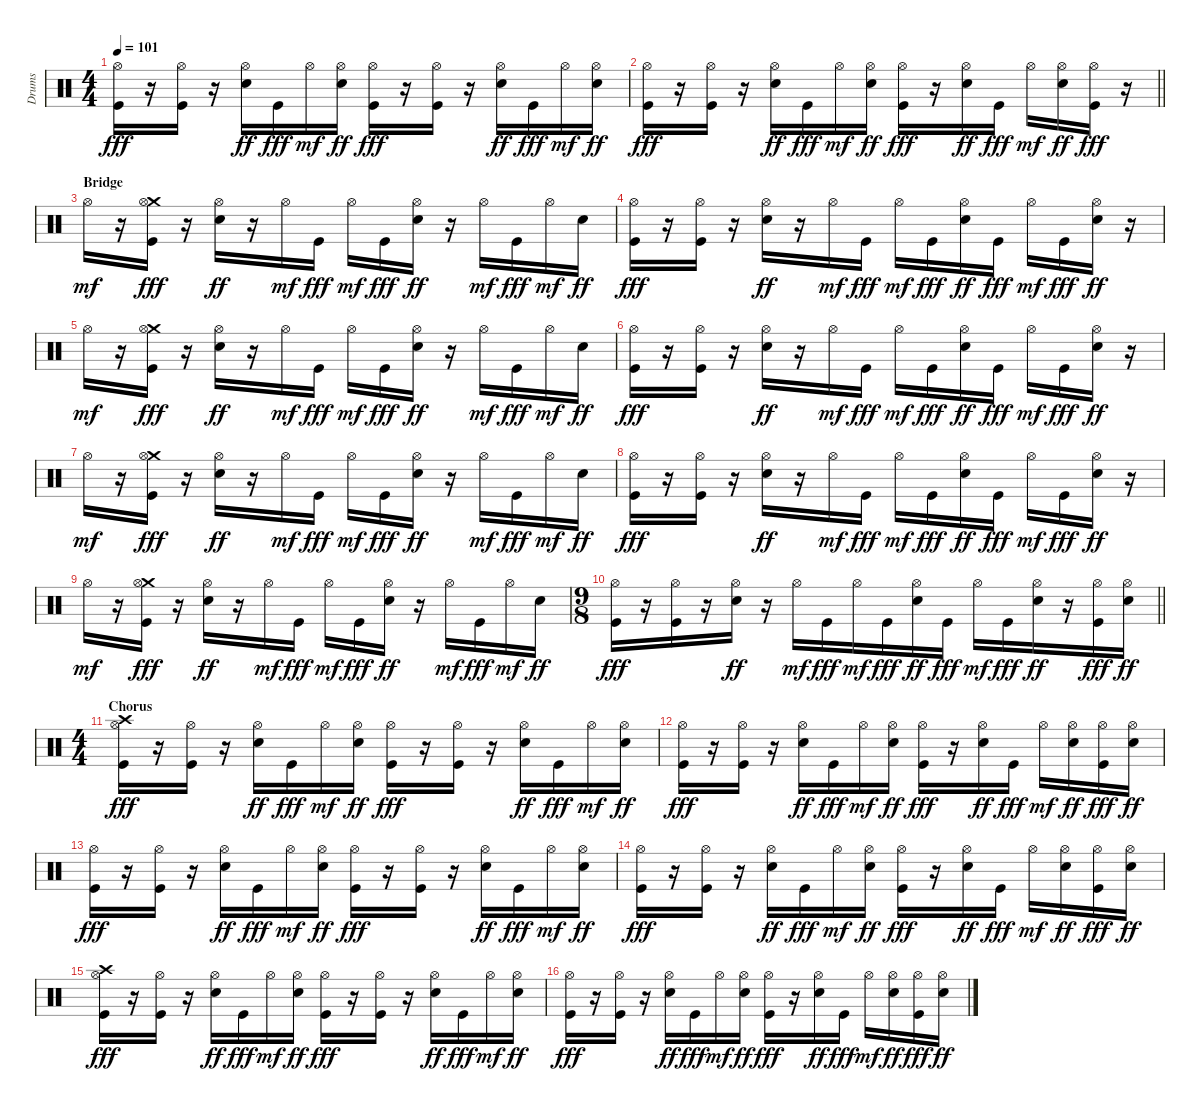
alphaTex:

\track ("Drums" "Drums") {instrument percussion}
\staff {score}
\articulation defaults
\ts (4 4)
\tempo 101
\clef neutral
\ks c
("Hi-Hat (open)" "Kick (hit)").16{dy fff} r.16 ("Hi-Hat (open)" "Kick (hit)").16 r.16 ("Hi-Hat (open)" "Electric Snare (hit)").16{dy ff} "Kick (hit)".16{dy fff} "Hi-Hat (open)".16{dy mf} ("Hi-Hat (open)" "Electric Snare (hit)").16{dy ff} ("Hi-Hat (open)" "Kick (hit)").16{dy fff} r.16 ("Hi-Hat (open)" "Kick (hit)").16 r.16 ("Hi-Hat (open)" "Electric Snare (hit)").16{dy ff} "Kick (hit)".16{dy fff} "Hi-Hat (open)".16{dy mf} ("Hi-Hat (open)" "Electric Snare (hit)").16{dy ff} |
\barLineRight lightlight
("Hi-Hat (open)" "Kick (hit)").16{dy fff} r.16 ("Hi-Hat (open)" "Kick (hit)").16 r.16 ("Hi-Hat (open)" "Electric Snare (hit)").16{dy ff} "Kick (hit)".16{dy fff} "Hi-Hat (open)".16{dy mf} ("Hi-Hat (open)" "Electric Snare (hit)").16{dy ff} ("Hi-Hat (open)" "Kick (hit)").16{dy fff} r.16 ("Hi-Hat (open)" "Electric Snare (hit)").16{dy ff} "Kick (hit)".16{dy fff} "Hi-Hat (open)".16{dy mf} ("Hi-Hat (open)" "Electric Snare (hit)").16{dy ff} ("Hi-Hat (open)" "Kick (hit)").16{dy fff} r.16 |
\section ("" "Bridge")
"Hi-Hat (open)".16{dy mf} r.16 ("Crash medium (hit)" "Hi-Hat (open)" "Kick (hit)").16{dy fff} r.16 ("Hi-Hat (open)" "Electric Snare (hit)").16{dy ff} r.16 "Hi-Hat (open)".16{dy mf} "Kick (hit)".16{dy fff} "Hi-Hat (open)".16{dy mf} "Kick (hit)".16{dy fff} ("Hi-Hat (open)" "Electric Snare (hit)").16{dy ff} r.16 "Hi-Hat (open)".16{dy mf} "Kick (hit)".16{dy fff} "Hi-Hat (open)".16{dy mf} "Electric Snare (hit)".16{dy ff} |
("Hi-Hat (open)" "Kick (hit)").16{dy fff} r.16 ("Hi-Hat (open)" "Kick (hit)").16 r.16 ("Hi-Hat (open)" "Electric Snare (hit)").16{dy ff} r.16 "Hi-Hat (open)".16{dy mf} "Kick (hit)".16{dy fff} "Hi-Hat (open)".16{dy mf} "Kick (hit)".16{dy fff} ("Hi-Hat (open)" "Electric Snare (hit)").16{dy ff} "Kick (hit)".16{dy fff} "Hi-Hat (open)".16{dy mf} "Kick (hit)".16{dy fff} ("Hi-Hat (open)" "Electric Snare (hit)").16{dy ff} r.16 |
"Hi-Hat (open)".16{dy mf} r.16 ("Crash medium (hit)" "Hi-Hat (open)" "Kick (hit)").16{dy fff} r.16 ("Hi-Hat (open)" "Electric Snare (hit)").16{dy ff} r.16 "Hi-Hat (open)".16{dy mf} "Kick (hit)".16{dy fff} "Hi-Hat (open)".16{dy mf} "Kick (hit)".16{dy fff} ("Hi-Hat (open)" "Electric Snare (hit)").16{dy ff} r.16 "Hi-Hat (open)".16{dy mf} "Kick (hit)".16{dy fff} "Hi-Hat (open)".16{dy mf} "Electric Snare (hit)".16{dy ff} |
("Hi-Hat (open)" "Kick (hit)").16{dy fff} r.16 ("Hi-Hat (open)" "Kick (hit)").16 r.16 ("Hi-Hat (open)" "Electric Snare (hit)").16{dy ff} r.16 "Hi-Hat (open)".16{dy mf} "Kick (hit)".16{dy fff} "Hi-Hat (open)".16{dy mf} "Kick (hit)".16{dy fff} ("Hi-Hat (open)" "Electric Snare (hit)").16{dy ff} "Kick (hit)".16{dy fff} "Hi-Hat (open)".16{dy mf} "Kick (hit)".16{dy fff} ("Hi-Hat (open)" "Electric Snare (hit)").16{dy ff} r.16 |
"Hi-Hat (open)".16{dy mf} r.16 ("Crash medium (hit)" "Hi-Hat (open)" "Kick (hit)").16{dy fff} r.16 ("Hi-Hat (open)" "Electric Snare (hit)").16{dy ff} r.16 "Hi-Hat (open)".16{dy mf} "Kick (hit)".16{dy fff} "Hi-Hat (open)".16{dy mf} "Kick (hit)".16{dy fff} ("Hi-Hat (open)" "Electric Snare (hit)").16{dy ff} r.16 "Hi-Hat (open)".16{dy mf} "Kick (hit)".16{dy fff} "Hi-Hat (open)".16{dy mf} "Electric Snare (hit)".16{dy ff} |
("Hi-Hat (open)" "Kick (hit)").16{dy fff} r.16 ("Hi-Hat (open)" "Kick (hit)").16 r.16 ("Hi-Hat (open)" "Electric Snare (hit)").16{dy ff} r.16 "Hi-Hat (open)".16{dy mf} "Kick (hit)".16{dy fff} "Hi-Hat (open)".16{dy mf} "Kick (hit)".16{dy fff} ("Hi-Hat (open)" "Electric Snare (hit)").16{dy ff} "Kick (hit)".16{dy fff} "Hi-Hat (open)".16{dy mf} "Kick (hit)".16{dy fff} ("Hi-Hat (open)" "Electric Snare (hit)").16{dy ff} r.16 |
"Hi-Hat (open)".16{dy mf} r.16 ("Crash medium (hit)" "Hi-Hat (open)" "Kick (hit)").16{dy fff} r.16 ("Hi-Hat (open)" "Electric Snare (hit)").16{dy ff} r.16 "Hi-Hat (open)".16{dy mf} "Kick (hit)".16{dy fff} "Hi-Hat (open)".16{dy mf} "Kick (hit)".16{dy fff} ("Hi-Hat (open)" "Electric Snare (hit)").16{dy ff} r.16 "Hi-Hat (open)".16{dy mf} "Kick (hit)".16{dy fff} "Hi-Hat (open)".16{dy mf} "Electric Snare (hit)".16{dy ff} |
\ts (9 8)
\barLineRight lightlight
("Hi-Hat (open)" "Kick (hit)").16{dy fff} r.16 ("Hi-Hat (open)" "Kick (hit)").16 r.16 ("Hi-Hat (open)" "Electric Snare (hit)").16{dy ff} r.16 "Hi-Hat (open)".16{dy mf} "Kick (hit)".16{dy fff} "Hi-Hat (open)".16{dy mf} "Kick (hit)".16{dy fff} ("Hi-Hat (open)" "Electric Snare (hit)").16{dy ff} "Kick (hit)".16{dy fff} "Hi-Hat (open)".16{dy mf} "Kick (hit)".16{dy fff} ("Hi-Hat (open)" "Electric Snare (hit)").16{dy ff} r.16 ("Hi-Hat (open)" "Kick (hit)").16{dy fff} ("Hi-Hat (open)" "Electric Snare (hit)").16{dy ff} |
\ts (4 4)
\section ("" "Chorus")
("Crash high (hit)" "Hi-Hat (open)" "Kick (hit)").16{dy fff} r.16 ("Hi-Hat (open)" "Kick (hit)").16 r.16 ("Hi-Hat (open)" "Electric Snare (hit)").16{dy ff} "Kick (hit)".16{dy fff} "Hi-Hat (open)".16{dy mf} ("Hi-Hat (open)" "Electric Snare (hit)").16{dy ff} ("Hi-Hat (open)" "Kick (hit)").16{dy fff} r.16 ("Hi-Hat (open)" "Kick (hit)").16 r.16 ("Hi-Hat (open)" "Electric Snare (hit)").16{dy ff} "Kick (hit)".16{dy fff} "Hi-Hat (open)".16{dy mf} ("Hi-Hat (open)" "Electric Snare (hit)").16{dy ff} |
("Hi-Hat (open)" "Kick (hit)").16{dy fff} r.16 ("Hi-Hat (open)" "Kick (hit)").16 r.16 ("Hi-Hat (open)" "Electric Snare (hit)").16{dy ff} "Kick (hit)".16{dy fff} "Hi-Hat (open)".16{dy mf} ("Hi-Hat (open)" "Electric Snare (hit)").16{dy ff} ("Hi-Hat (open)" "Kick (hit)").16{dy fff} r.16 ("Hi-Hat (open)" "Electric Snare (hit)").16{dy ff} "Kick (hit)".16{dy fff} "Hi-Hat (open)".16{dy mf} ("Hi-Hat (open)" "Electric Snare (hit)").16{dy ff} ("Hi-Hat (open)" "Kick (hit)").16{dy fff} ("Hi-Hat (open)" "Electric Snare (hit)").16{dy ff} |
("Hi-Hat (open)" "Kick (hit)").16{dy fff} r.16 ("Hi-Hat (open)" "Kick (hit)").16 r.16 ("Hi-Hat (open)" "Electric Snare (hit)").16{dy ff} "Kick (hit)".16{dy fff} "Hi-Hat (open)".16{dy mf} ("Hi-Hat (open)" "Electric Snare (hit)").16{dy ff} ("Hi-Hat (open)" "Kick (hit)").16{dy fff} r.16 ("Hi-Hat (open)" "Kick (hit)").16 r.16 ("Hi-Hat (open)" "Electric Snare (hit)").16{dy ff} "Kick (hit)".16{dy fff} "Hi-Hat (open)".16{dy mf} ("Hi-Hat (open)" "Electric Snare (hit)").16{dy ff} |
("Hi-Hat (open)" "Kick (hit)").16{dy fff} r.16 ("Hi-Hat (open)" "Kick (hit)").16 r.16 ("Hi-Hat (open)" "Electric Snare (hit)").16{dy ff} "Kick (hit)".16{dy fff} "Hi-Hat (open)".16{dy mf} ("Hi-Hat (open)" "Electric Snare (hit)").16{dy ff} ("Hi-Hat (open)" "Kick (hit)").16{dy fff} r.16 ("Hi-Hat (open)" "Electric Snare (hit)").16{dy ff} "Kick (hit)".16{dy fff} "Hi-Hat (open)".16{dy mf} ("Hi-Hat (open)" "Electric Snare (hit)").16{dy ff} ("Hi-Hat (open)" "Kick (hit)").16{dy fff} ("Hi-Hat (open)" "Electric Snare (hit)").16{dy ff} |
("Crash high (hit)" "Hi-Hat (open)" "Kick (hit)").16{dy fff} r.16 ("Hi-Hat (open)" "Kick (hit)").16 r.16 ("Hi-Hat (open)" "Electric Snare (hit)").16{dy ff} "Kick (hit)".16{dy fff} "Hi-Hat (open)".16{dy mf} ("Hi-Hat (open)" "Electric Snare (hit)").16{dy ff} ("Hi-Hat (open)" "Kick (hit)").16{dy fff} r.16 ("Hi-Hat (open)" "Kick (hit)").16 r.16 ("Hi-Hat (open)" "Electric Snare (hit)").16{dy ff} "Kick (hit)".16{dy fff} "Hi-Hat (open)".16{dy mf} ("Hi-Hat (open)" "Electric Snare (hit)").16{dy ff} |
("Hi-Hat (open)" "Kick (hit)").16{dy fff} r.16 ("Hi-Hat (open)" "Kick (hit)").16 r.16 ("Hi-Hat (open)" "Electric Snare (hit)").16{dy ff} "Kick (hit)".16{dy fff} "Hi-Hat (open)".16{dy mf} ("Hi-Hat (open)" "Electric Snare (hit)").16{dy ff} ("Hi-Hat (open)" "Kick (hit)").16{dy fff} r.16 ("Hi-Hat (open)" "Electric Snare (hit)").16{dy ff} "Kick (hit)".16{dy fff} "Hi-Hat (open)".16{dy mf} ("Hi-Hat (open)" "Electric Snare (hit)").16{dy ff} ("Hi-Hat (open)" "Kick (hit)").16{dy fff} ("Hi-Hat (open)" "Electric Snare (hit)").16{dy ff}
